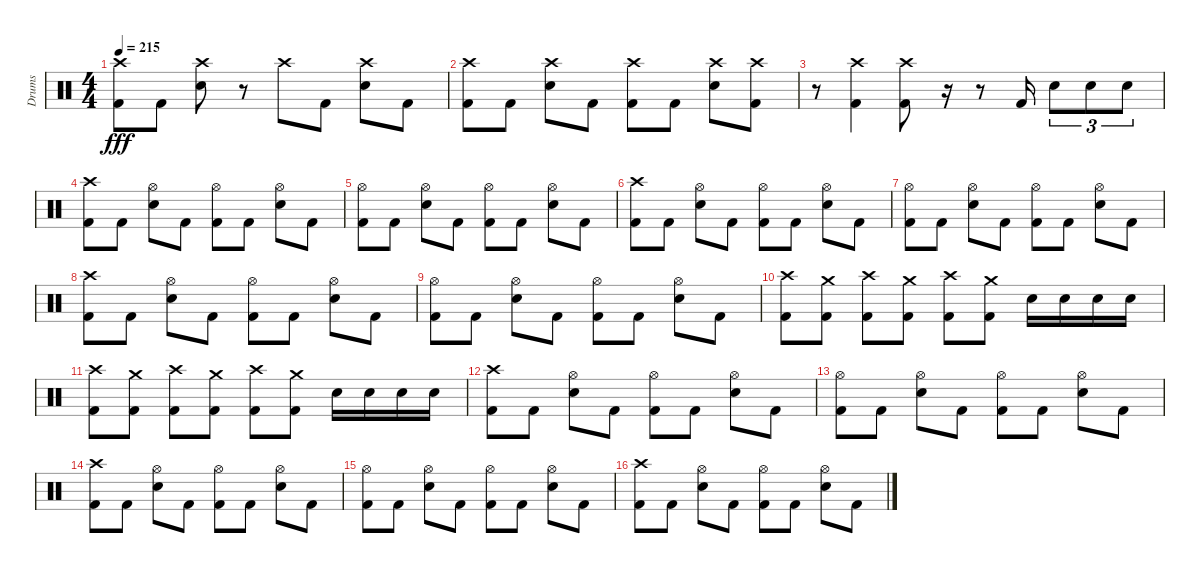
\track ("Drums" "Drums") {instrument percussion}
\staff {score}
\articulation defaults
\ts (4 4)
\tempo 215
\clef neutral
\ks c
("Crash high (hit)" "Kick (hit) 2").8{dy fff} "Kick (hit) 2".8 ("Crash high (hit)" "Electric Snare (hit)").8 r.8 "Crash high (hit)".8 "Kick (hit) 2".8 ("Crash high (hit)" "Electric Snare (hit)").8 "Kick (hit) 2".8 |
("Crash high (hit)" "Kick (hit) 2").8 "Kick (hit) 2".8 ("Crash high (hit)" "Electric Snare (hit)").8 "Kick (hit) 2".8 ("Crash high (hit)" "Kick (hit) 2").8 "Kick (hit) 2".8 ("Crash high (hit)" "Electric Snare (hit)").8 ("Crash high (hit)" "Kick (hit) 2").8 |
r.8 ("Crash high (hit)" "Kick (hit) 2").4 ("Crash high (hit)" "Kick (hit) 2").8 r.16 r.8 "Kick (hit) 2".16 "Electric Snare (hit)".8{tu (3 2)} "Electric Snare (hit)".8{tu (3 2)} "Electric Snare (hit)".8{tu (3 2)} |
("Crash high (hit)" "Kick (hit) 2").8 "Kick (hit) 2".8 ("Hi-Hat (open)" "Electric Snare (hit)").8 "Kick (hit) 2".8 ("Hi-Hat (open)" "Kick (hit) 2").8 "Kick (hit) 2".8 ("Hi-Hat (open)" "Electric Snare (hit)").8 "Kick (hit) 2".8 |
("Hi-Hat (open)" "Kick (hit) 2").8 "Kick (hit) 2".8 ("Hi-Hat (open)" "Electric Snare (hit)").8 "Kick (hit) 2".8 ("Hi-Hat (open)" "Kick (hit) 2").8 "Kick (hit) 2".8 ("Hi-Hat (open)" "Electric Snare (hit)").8 "Kick (hit) 2".8 |
("Crash high (hit)" "Kick (hit) 2").8 "Kick (hit) 2".8 ("Hi-Hat (open)" "Electric Snare (hit)").8 "Kick (hit) 2".8 ("Hi-Hat (open)" "Kick (hit) 2").8 "Kick (hit) 2".8 ("Hi-Hat (open)" "Electric Snare (hit)").8 "Kick (hit) 2".8 |
("Hi-Hat (open)" "Kick (hit) 2").8 "Kick (hit) 2".8 ("Hi-Hat (open)" "Electric Snare (hit)").8 "Kick (hit) 2".8 ("Hi-Hat (open)" "Kick (hit) 2").8 "Kick (hit) 2".8 ("Hi-Hat (open)" "Electric Snare (hit)").8 "Kick (hit) 2".8 |
("Crash high (hit)" "Kick (hit) 2").8 "Kick (hit) 2".8 ("Hi-Hat (open)" "Electric Snare (hit)").8 "Kick (hit) 2".8 ("Hi-Hat (open)" "Kick (hit) 2").8 "Kick (hit) 2".8 ("Hi-Hat (open)" "Electric Snare (hit)").8 "Kick (hit) 2".8 |
("Hi-Hat (open)" "Kick (hit) 2").8 "Kick (hit) 2".8 ("Hi-Hat (open)" "Electric Snare (hit)").8 "Kick (hit) 2".8 ("Hi-Hat (open)" "Kick (hit) 2").8 "Kick (hit) 2".8 ("Hi-Hat (open)" "Electric Snare (hit)").8 "Kick (hit) 2".8 |
("Crash high (hit)" "Kick (hit) 2").8 ("Crash medium (hit)" "Kick (hit) 2").8 ("Crash high (hit)" "Kick (hit) 2").8 ("Crash medium (hit)" "Kick (hit) 2").8 ("Crash high (hit)" "Kick (hit) 2").8 ("Crash medium (hit)" "Kick (hit) 2").8 "Electric Snare (hit)".16 "Electric Snare (hit)".16 "Electric Snare (hit)".16 "Electric Snare (hit)".16 |
("Crash high (hit)" "Kick (hit) 2").8 ("Crash medium (hit)" "Kick (hit) 2").8 ("Crash high (hit)" "Kick (hit) 2").8 ("Crash medium (hit)" "Kick (hit) 2").8 ("Crash high (hit)" "Kick (hit) 2").8 ("Crash medium (hit)" "Kick (hit) 2").8 "Electric Snare (hit)".16 "Electric Snare (hit)".16 "Electric Snare (hit)".16 "Electric Snare (hit)".16 |
("Crash high (hit)" "Kick (hit) 2").8 "Kick (hit) 2".8 ("Hi-Hat (open)" "Electric Snare (hit)").8 "Kick (hit) 2".8 ("Hi-Hat (open)" "Kick (hit) 2").8 "Kick (hit) 2".8 ("Hi-Hat (open)" "Electric Snare (hit)").8 "Kick (hit) 2".8 |
("Hi-Hat (open)" "Kick (hit) 2").8 "Kick (hit) 2".8 ("Hi-Hat (open)" "Electric Snare (hit)").8 "Kick (hit) 2".8 ("Hi-Hat (open)" "Kick (hit) 2").8 "Kick (hit) 2".8 ("Hi-Hat (open)" "Electric Snare (hit)").8 "Kick (hit) 2".8 |
("Crash high (hit)" "Kick (hit) 2").8 "Kick (hit) 2".8 ("Hi-Hat (open)" "Electric Snare (hit)").8 "Kick (hit) 2".8 ("Hi-Hat (open)" "Kick (hit) 2").8 "Kick (hit) 2".8 ("Hi-Hat (open)" "Electric Snare (hit)").8 "Kick (hit) 2".8 |
("Hi-Hat (open)" "Kick (hit) 2").8 "Kick (hit) 2".8 ("Hi-Hat (open)" "Electric Snare (hit)").8 "Kick (hit) 2".8 ("Hi-Hat (open)" "Kick (hit) 2").8 "Kick (hit) 2".8 ("Hi-Hat (open)" "Electric Snare (hit)").8 "Kick (hit) 2".8 |
("Crash high (hit)" "Kick (hit) 2").8 "Kick (hit) 2".8 ("Hi-Hat (open)" "Electric Snare (hit)").8 "Kick (hit) 2".8 ("Hi-Hat (open)" "Kick (hit) 2").8 "Kick (hit) 2".8 ("Hi-Hat (open)" "Electric Snare (hit)").8 "Kick (hit) 2".8
